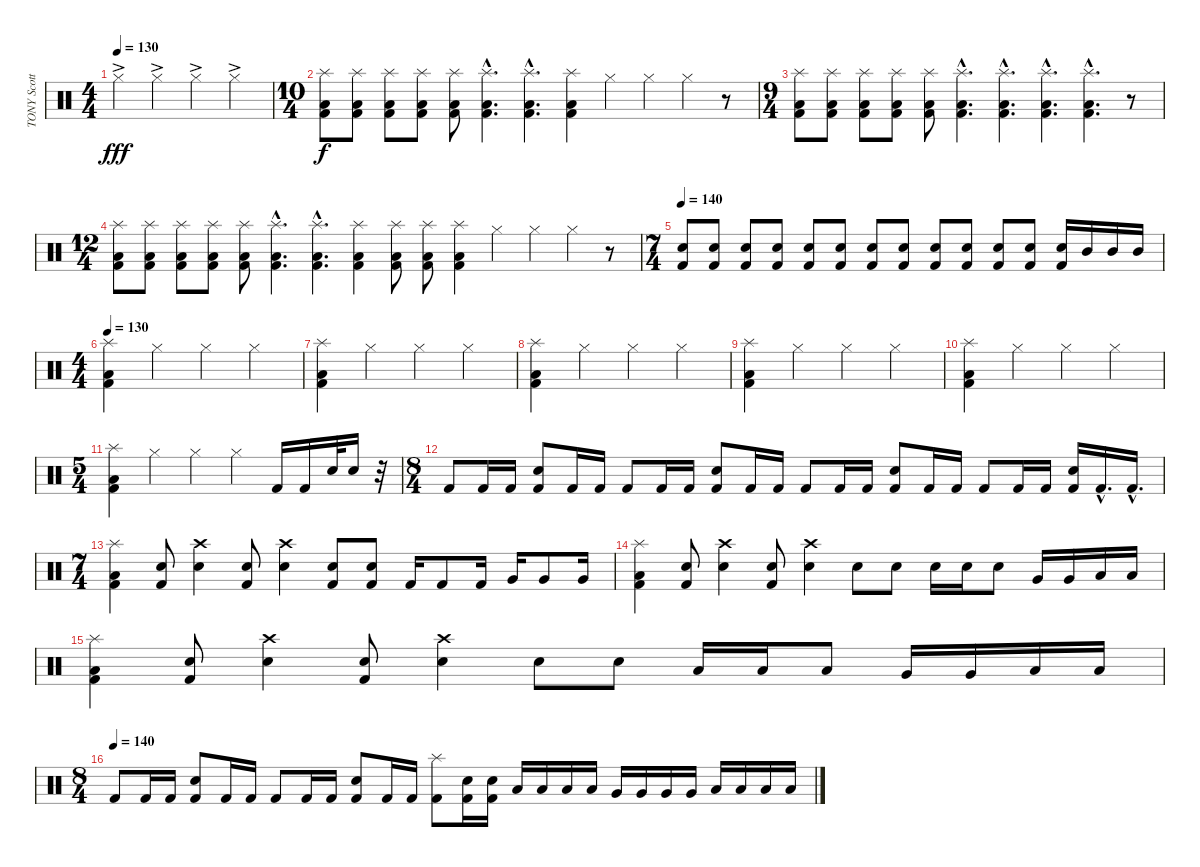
\track ("TONY Scotto" "TONY Scott") {instrument percussion}
\staff {score}
\articulation defaults
\ts (4 4)
\tempo 130
\clef neutral
\ks c "Hi-Hat (closed)"{ac}.4{dy fff} "Hi-Hat (closed)"{ac}.4 "Hi-Hat (closed)"{ac}.4 "Hi-Hat (closed)"{ac}.4
|
\ts (10 4)
("Splash (hit)" "Low Tom (hit)" "Kick (hit) 2").8{dy f} ("Splash (hit)" "Low Tom (hit)" "Kick (hit) 2").8 ("Splash (hit)" "Low Tom (hit)" "Kick (hit) 2").8 ("Splash (hit)" "Low Tom (hit)" "Kick (hit) 2").8 ("Splash (hit)" "Low Tom (hit)" "Kick (hit) 2").8 ("Splash (hit)"{hac} "Low Tom (hit)"{hac} "Kick (hit) 2"{hac}).4{d} ("Splash (hit)"{hac} "Low Tom (hit)"{hac} "Kick (hit) 2"{hac}).4{d} ("Splash (hit)" "Low Tom (hit)" "Kick (hit) 2").4 "Hi-Hat (closed)".4 "Hi-Hat (closed)".4 "Hi-Hat (closed)".4 r.8 |
\ts (9 4)
("Splash (hit)" "Low Tom (hit)" "Kick (hit) 2").8 ("Splash (hit)" "Low Tom (hit)" "Kick (hit) 2").8 ("Splash (hit)" "Low Tom (hit)" "Kick (hit) 2").8 ("Splash (hit)" "Low Tom (hit)" "Kick (hit) 2").8 ("Splash (hit)" "Low Tom (hit)" "Kick (hit) 2").8 ("Splash (hit)"{hac} "Low Tom (hit)"{hac} "Kick (hit) 2"{hac}).4{d} ("Splash (hit)"{hac} "Low Tom (hit)"{hac} "Kick (hit) 2"{hac}).4{d} ("Splash (hit)"{hac} "Low Tom (hit)"{hac} "Kick (hit) 2"{hac}).4{d} ("Splash (hit)"{hac} "Low Tom (hit)"{hac} "Kick (hit) 2"{hac}).4{d} r.8 |
\ts (12 4)
("Splash (hit)" "Low Tom (hit)" "Kick (hit) 2").8 ("Splash (hit)" "Low Tom (hit)" "Kick (hit) 2").8 ("Splash (hit)" "Low Tom (hit)" "Kick (hit) 2").8 ("Splash (hit)" "Low Tom (hit)" "Kick (hit) 2").8 ("Splash (hit)" "Low Tom (hit)" "Kick (hit) 2").8 ("Splash (hit)"{hac} "Low Tom (hit)"{hac} "Kick (hit) 2"{hac}).4{d} ("Splash (hit)"{hac} "Low Tom (hit)"{hac} "Kick (hit) 2"{hac}).4{d} ("Splash (hit)" "Low Tom (hit)" "Kick (hit) 2").4 ("Splash (hit)" "Low Tom (hit)" "Kick (hit) 2").8 ("Splash (hit)" "Low Tom (hit)" "Kick (hit) 2").8 ("Splash (hit)" "Low Tom (hit)" "Kick (hit) 2").4 "Hi-Hat (closed)".4 "Hi-Hat (closed)".4 "Hi-Hat (closed)".4 r.8 |
\ts (7 4)
\tempo 140
("Electric Snare (hit)" "Kick (hit) 2").8 ("Electric Snare (hit)" "Kick (hit) 2").8 ("Electric Snare (hit)" "Kick (hit) 2").8 ("Electric Snare (hit)" "Kick (hit) 2").8 ("Electric Snare (hit)" "Kick (hit) 2").8 ("Electric Snare (hit)" "Kick (hit) 2").8 ("Electric Snare (hit)" "Kick (hit) 2").8 ("Electric Snare (hit)" "Kick (hit) 2").8 ("Electric Snare (hit)" "Kick (hit) 2").8 ("Electric Snare (hit)" "Kick (hit) 2").8 ("Electric Snare (hit)" "Kick (hit) 2").8 ("Electric Snare (hit)" "Kick (hit) 2").8 ("Electric Snare (hit)" "Kick (hit) 2").16 "Mid Tom (hit)".16 "Mid Tom (hit)".16 "Mid Tom (hit)".16 |
\ts (4 4)
\tempo 130
("Splash (hit)" "Low Tom (hit)" "Kick (hit) 2").4 "Hi-Hat (closed)".4 "Hi-Hat (closed)".4 "Hi-Hat (closed)".4 |
("Splash (hit)" "Low Tom (hit)" "Kick (hit) 2").4 "Hi-Hat (closed)".4 "Hi-Hat (closed)".4 "Hi-Hat (closed)".4 |
("Splash (hit)" "Low Tom (hit)" "Kick (hit) 2").4 "Hi-Hat (closed)".4 "Hi-Hat (closed)".4 "Hi-Hat (closed)".4 |
("Splash (hit)" "Low Tom (hit)" "Kick (hit) 2").4 "Hi-Hat (closed)".4 "Hi-Hat (closed)".4 "Hi-Hat (closed)".4 |
("Splash (hit)" "Low Tom (hit)" "Kick (hit) 2").4 "Hi-Hat (closed)".4 "Hi-Hat (closed)".4 "Hi-Hat (closed)".4 |
\ts (5 4)
("Splash (hit)" "Low Tom (hit)" "Kick (hit) 2").4 "Hi-Hat (closed)".4 "Hi-Hat (closed)".4 "Hi-Hat (closed)".4 "Kick (hit) 2".16 "Kick (hit) 2".16 "Electric Snare (hit)".32 "Electric Snare (hit)".16 r.32 |
\ts (8 4)
"Kick (hit) 2".8 "Kick (hit) 2".16 "Kick (hit) 2".16 ("Electric Snare (hit)" "Kick (hit) 2").8 "Kick (hit) 2".16 "Kick (hit) 2".16 "Kick (hit) 2".8 "Kick (hit) 2".16 "Kick (hit) 2".16 ("Electric Snare (hit)" "Kick (hit) 2").8 "Kick (hit) 2".16 "Kick (hit) 2".16 "Kick (hit) 2".8 "Kick (hit) 2".16 "Kick (hit) 2".16 ("Electric Snare (hit)" "Kick (hit) 2").8 "Kick (hit) 2".16 "Kick (hit) 2".16 "Kick (hit) 2".8 "Kick (hit) 2".16 "Kick (hit) 2".16 ("Electric Snare (hit)" "Kick (hit) 2").16 "Kick (hit) 2"{hac}.16{d} "Kick (hit) 2"{hac}.16{d} |
\ts (7 4)
("Splash (hit)" "Low Tom (hit)" "Kick (hit) 2").4 ("Electric Snare (hit)" "Kick (hit) 2").8 ("Crash high (hit)" "Electric Snare (hit)").4 ("Electric Snare (hit)" "Kick (hit) 2").8 ("Crash high (hit)" "Electric Snare (hit)").4 ("Electric Snare (hit)" "Kick (hit) 2").8 ("Electric Snare (hit)" "Kick (hit) 2").8 "Kick (hit) 2".16 "Kick (hit) 2".8 "Kick (hit) 2".16 "Very Low Tom (hit)".16 "Very Low Tom (hit)".8 "Very Low Tom (hit)".16 |
("Splash (hit)" "Low Tom (hit)" "Kick (hit) 2").4 ("Electric Snare (hit)" "Kick (hit) 2").8 ("Crash high (hit)" "Electric Snare (hit)").4 ("Electric Snare (hit)" "Kick (hit) 2").8 ("Crash high (hit)" "Electric Snare (hit)").4 "Electric Snare (hit)".8 "Electric Snare (hit)".8 "Electric Snare (hit)".16 "Electric Snare (hit)".16 "Electric Snare (hit)".8 "Very Low Tom (hit)".16 "Very Low Tom (hit)".16 "Low Floor Tom (hit)".16 "Low Floor Tom (hit)".16 |
("Splash (hit)" "Low Tom (hit)" "Kick (hit) 2").4 ("Electric Snare (hit)" "Kick (hit) 2").8 ("Crash high (hit)" "Electric Snare (hit)").4 ("Electric Snare (hit)" "Kick (hit) 2").8 ("Crash high (hit)" "Electric Snare (hit)").4 "Electric Snare (hit)".8 "Electric Snare (hit)".8 "Low Floor Tom (hit)".16 "Low Floor Tom (hit)".16 "Low Floor Tom (hit)".8 "Very Low Tom (hit)".16 "Very Low Tom (hit)".16 "Low Floor Tom (hit)".16 "Low Floor Tom (hit)".16 |
\ts (8 4)
\tempo (140)
"Kick (hit) 2".8 "Kick (hit) 2".16 "Kick (hit) 2".16 ("Electric Snare (hit)" "Kick (hit) 2").8 "Kick (hit) 2".16 "Kick (hit) 2".16 "Kick (hit) 2".8 "Kick (hit) 2".16 "Kick (hit) 2".16 ("Electric Snare (hit)" "Kick (hit) 2").8 "Kick (hit) 2".16 "Kick (hit) 2".16 ("Splash (hit)" "Kick (hit) 2").8 ("Electric Snare (hit)" "Kick (hit) 2").16 ("Electric Snare (hit)" "Kick (hit) 2").16 "Low Floor Tom (hit)".16 "Low Floor Tom (hit)".16 "Low Floor Tom (hit)".16 "Low Floor Tom (hit)".16 "Very Low Tom (hit)".16 "Very Low Tom (hit)".16 "Very Low Tom (hit)".16 "Very Low Tom (hit)".16 "Low Floor Tom (hit)".16 "Low Floor Tom (hit)".16 "Low Floor Tom (hit)".16 "Low Floor Tom (hit)".16
